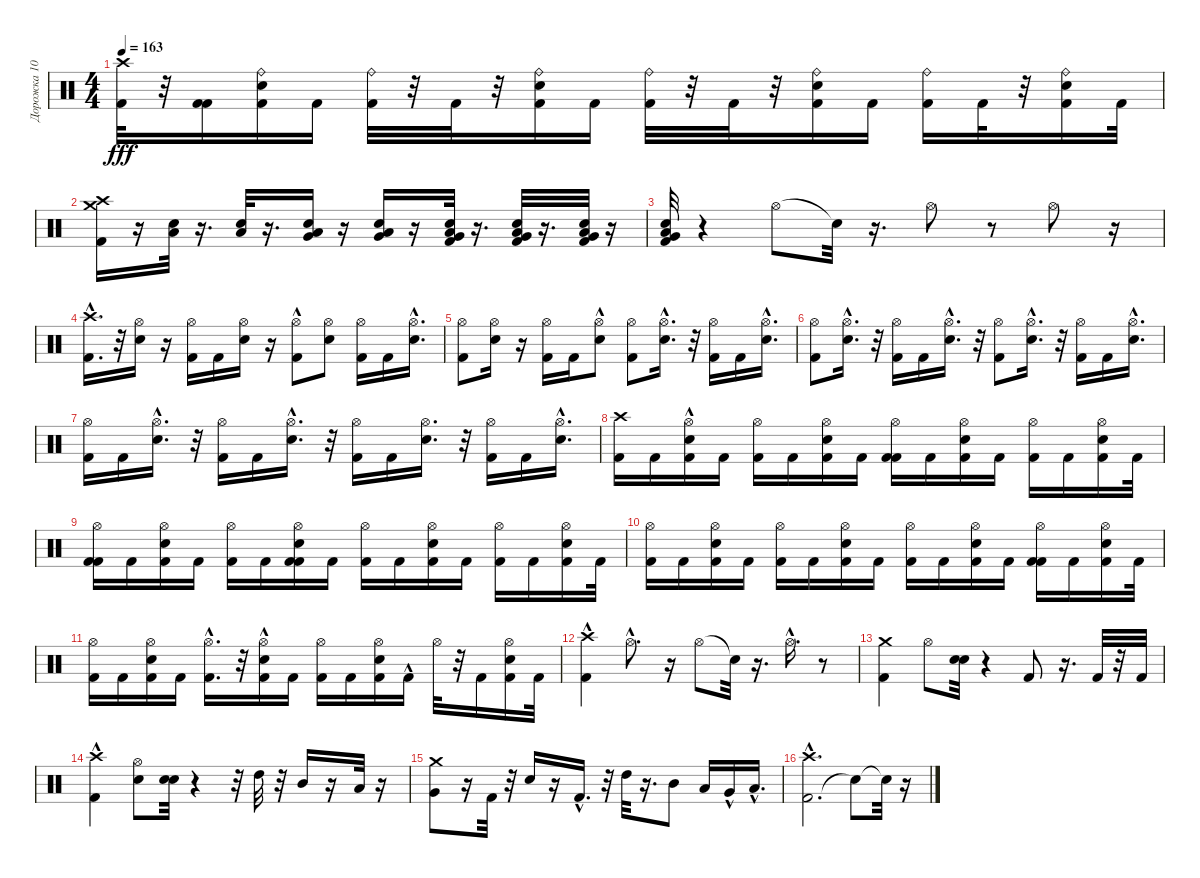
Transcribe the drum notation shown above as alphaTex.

\track ("Дорожка 10" "Дорожка 10") {instrument percussion}
\staff {score}
\articulation defaults
\ts (4 4)
\tempo 163
\clef neutral
\ks c
("Kick (hit) 2" "Crash high (hit)").32{dy fff} r.32 ("Kick (hit) 2" "Kick (hit) 2").16 ("Kick (hit) 2" "Electric Snare (hit)" "Ride (bell)").16 "Kick (hit) 2".16 ("Ride (bell)" "Kick (hit) 2").32 r.32 "Kick (hit) 2".32 r.32 ("Kick (hit) 2" "Electric Snare (hit)" "Ride (bell)").16 "Kick (hit) 2".16 ("Ride (bell)" "Kick (hit) 2").32 r.32 "Kick (hit) 2".32 r.32 ("Kick (hit) 2" "Electric Snare (hit)" "Ride (bell)").16 "Kick (hit) 2".16 ("Ride (bell)" "Kick (hit) 2").16 "Kick (hit) 2".32 r.32 ("Kick (hit) 2" "Electric Snare (hit)" "Ride (bell)").16 "Kick (hit) 2".32 |
("Kick (hit) 2" "Crash high (hit)" "Crash medium (hit)").16 r.16 ("Low Floor Tom (hit)" "Electric Snare (hit)").32 r.16{d} ("Electric Snare (hit)" "Low Floor Tom (hit)").32 r.16{d} ("Very Low Tom (hit)" "Low Floor Tom (hit)" "Electric Snare (hit)").16 r.16 ("Very Low Tom (hit)" "Electric Snare (hit)" "Low Floor Tom (hit)").16 r.16 ("Kick (hit) 2" "Very Low Tom (hit)" "Electric Snare (hit)" "Low Floor Tom (hit)").32 r.16{d} ("Kick (hit) 2" "Electric Snare (hit)" "Very Low Tom (hit)" "Low Floor Tom (hit)").32 r.16{d} ("Electric Snare (hit)" "Kick (hit) 2" "Low Floor Tom (hit)" "Very Low Tom (hit)").32 r.16 |
("Kick (hit) 2" "Electric Snare (hit)" "Very Low Tom (hit)" "Low Floor Tom (hit)").32 r.4 "Hi-Hat (open)".8 "Snare (hit)"{t}.32 r.16{d} "Hi-Hat (open)".8 r.8 "Hi-Hat (open)".8 r.16 |
("Kick (hit) 2"{hac} "Crash high (hit)").16{d} r.32 ("Electric Snare (hit)" "Hi-Hat (open)").16 r.16 ("Kick (hit) 2" "Hi-Hat (open)").16 "Kick (hit) 2".16 ("Electric Snare (hit)" "Hi-Hat (open)").16 r.16 ("Kick (hit) 2"{hac} "Hi-Hat (open)").8 ("Electric Snare (hit)" "Hi-Hat (open)").8 ("Kick (hit) 2" "Hi-Hat (open)").16 "Kick (hit) 2".16 ("Electric Snare (hit)"{hac} "Hi-Hat (open)").16{d} |
("Kick (hit) 2" "Hi-Hat (open)").8 ("Electric Snare (hit)" "Hi-Hat (open)").16 r.16 ("Kick (hit) 2" "Hi-Hat (open)").16 "Kick (hit) 2".16 ("Electric Snare (hit)" "Hi-Hat (open)"{hac}).8 ("Kick (hit) 2" "Hi-Hat (open)").8 ("Electric Snare (hit)"{hac} "Hi-Hat (open)").16{d} r.32 ("Kick (hit) 2" "Hi-Hat (open)").16 "Kick (hit) 2".16 ("Electric Snare (hit)"{hac} "Hi-Hat (open)").16{d} |
("Kick (hit) 2" "Hi-Hat (open)").8 ("Hi-Hat (open)" "Electric Snare (hit)"{hac}).16{d} r.32 ("Kick (hit) 2" "Hi-Hat (open)").16 "Kick (hit) 2".16 ("Electric Snare (hit)"{hac} "Hi-Hat (open)").16{d} r.32 ("Kick (hit) 2" "Hi-Hat (open)").8 ("Electric Snare (hit)"{hac} "Hi-Hat (open)").16{d} r.32 ("Kick (hit) 2" "Hi-Hat (open)").16 "Kick (hit) 2".16 ("Electric Snare (hit)"{hac} "Hi-Hat (open)").16{d} |
("Kick (hit) 2" "Hi-Hat (open)").16 "Kick (hit) 2".16 ("Electric Snare (hit)"{hac} "Hi-Hat (open)").16{d} r.32 ("Kick (hit) 2" "Hi-Hat (open)").16 "Kick (hit) 2".16 ("Hi-Hat (open)" "Electric Snare (hit)"{hac}).16{d} r.32 ("Hi-Hat (open)" "Kick (hit) 2").16 "Kick (hit) 2".16 ("Hi-Hat (open)" "Electric Snare (hit)").16{d} r.32 ("Hi-Hat (open)" "Kick (hit) 2").16 "Kick (hit) 2".16 ("Hi-Hat (open)"{hac} "Electric Snare (hit)").16{d} |
("Crash high (hit)" "Kick (hit) 2").16 "Kick (hit) 2".16 ("Hi-Hat (open)" "Electric Snare (hit)"{hac} "Kick (hit) 2").16 "Kick (hit) 2".16 ("Hi-Hat (open)" "Kick (hit) 2").16 "Kick (hit) 2".16 ("Kick (hit) 2" "Hi-Hat (open)" "Electric Snare (hit)").16 "Kick (hit) 2".16 ("Kick (hit) 2" "Hi-Hat (open)" "Kick (hit) 2").16 "Kick (hit) 2".16 ("Kick (hit) 2" "Hi-Hat (open)" "Electric Snare (hit)").16 "Kick (hit) 2".16 ("Hi-Hat (open)" "Kick (hit) 2").16 "Kick (hit) 2".16 ("Hi-Hat (open)" "Electric Snare (hit)" "Kick (hit) 2").16 "Kick (hit) 2".32 |
("Kick (hit) 2" "Hi-Hat (open)" "Kick (hit) 2").16 "Kick (hit) 2".16 ("Hi-Hat (open)" "Electric Snare (hit)" "Kick (hit) 2").16 "Kick (hit) 2".16 ("Kick (hit) 2" "Hi-Hat (open)").16 "Kick (hit) 2".16 ("Kick (hit) 2" "Hi-Hat (open)" "Electric Snare (hit)" "Kick (hit) 2").16 "Kick (hit) 2".16 ("Kick (hit) 2" "Hi-Hat (open)").16 "Kick (hit) 2".16 ("Kick (hit) 2" "Hi-Hat (open)" "Electric Snare (hit)").16 "Kick (hit) 2".16 ("Kick (hit) 2" "Hi-Hat (open)").16 "Kick (hit) 2".16 ("Kick (hit) 2" "Hi-Hat (open)" "Electric Snare (hit)").16 "Kick (hit) 2".32 |
("Kick (hit) 2" "Hi-Hat (open)").16 "Kick (hit) 2".16 ("Kick (hit) 2" "Hi-Hat (open)" "Electric Snare (hit)").16 "Kick (hit) 2".16 ("Kick (hit) 2" "Hi-Hat (open)").16 "Kick (hit) 2".16 ("Kick (hit) 2" "Hi-Hat (open)" "Electric Snare (hit)").16 "Kick (hit) 2".16 ("Kick (hit) 2" "Hi-Hat (open)").16 "Kick (hit) 2".16 ("Kick (hit) 2" "Hi-Hat (open)" "Electric Snare (hit)").16 "Kick (hit) 2".16 ("Kick (hit) 2" "Hi-Hat (open)" "Kick (hit) 2").16 "Kick (hit) 2".16 ("Hi-Hat (open)" "Electric Snare (hit)" "Kick (hit) 2").16 "Kick (hit) 2".32 |
("Hi-Hat (open)" "Kick (hit) 2").16 "Kick (hit) 2".16 ("Hi-Hat (open)" "Electric Snare (hit)" "Kick (hit) 2").16 "Kick (hit) 2".16 ("Hi-Hat (open)" "Kick (hit) 2"{hac}).16{d} r.32 ("Kick (hit) 2" "Hi-Hat (open)" "Electric Snare (hit)"{hac}).16 "Kick (hit) 2".16 ("Hi-Hat (open)" "Kick (hit) 2").16 "Kick (hit) 2".16 ("Hi-Hat (open)" "Electric Snare (hit)" "Kick (hit) 2").16 "Kick (hit) 2"{hac}.16 "Hi-Hat (open)".32 r.32 "Kick (hit) 2".16 ("Hi-Hat (open)" "Electric Snare (hit)" "Kick (hit) 2").16 "Kick (hit) 2".32 |
("Crash high (hit)" "Kick (hit) 2"{hac}).4 "Hi-Hat (open)"{hac}.8{d} r.16 "Hi-Hat (open)".8 "Snare (hit)"{t}.32 r.16{d} "Hi-Hat (open)"{hac}.16{d} r.8 |
("Kick (hit) 2" "Crash medium (hit)").4 "Hi-Hat (open)".8 ("Electric Snare (hit)" "Electric Snare (hit)").32 r.4 "Kick (hit) 2".8 r.16{d} "Kick (hit) 2".32 r.32 "Kick (hit) 2".32 |
("Kick (hit) 2"{hac} "Crash high (hit)"{hac}).4 ("Hi-Hat (open)" "Electric Snare (hit)").8 ("Electric Snare (hit)" "Electric Snare (hit)").32 r.4 r.32 "High Tom (hit)".32 r.32 "Mid Tom (hit)".16 r.16 "Low Tom (hit)".32 r.16 |
("Very Low Tom (hit)" "Crash medium (hit)").8 r.16 "Kick (hit) 2".32 r.32 "Electric Snare (hit)".16 r.16 "Kick (hit) 2"{hac}.16{d} r.32 "High Tom (hit)".32 r.16{d} "Mid Tom (hit)".8 "Low Tom (hit)".16 "Very Low Tom (hit)"{hac}.16 "Low Floor Tom (hit)"{hac}.16{d} |
("Kick (hit) 2" "Crash high (hit)"{hac}).2{d} "Snare (hit)"{t}.8 "Snare (hit)"{t}.32 r.16
